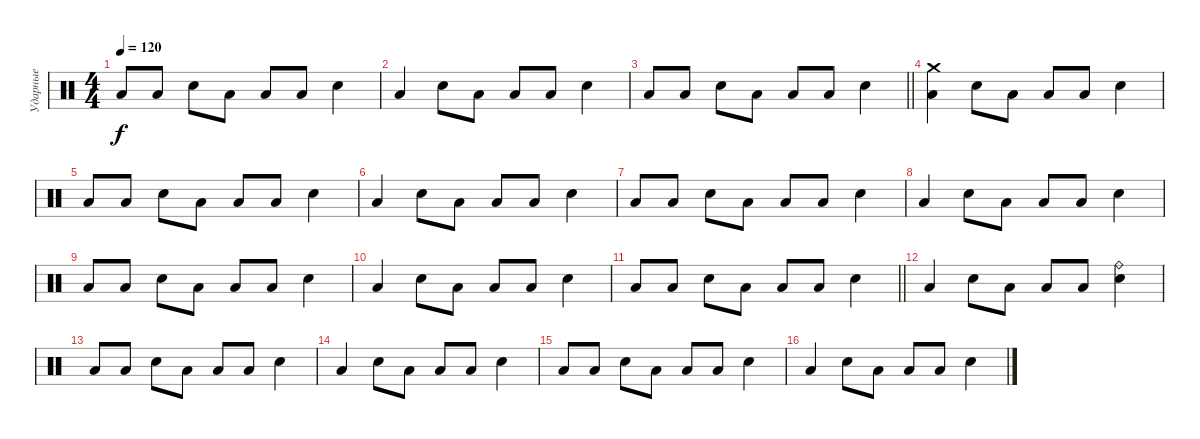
\track ("Ударные" "Ударные") {instrument percussion}
\staff {score}
\articulation defaults
\ts (4 4)
\tempo 120
\clef neutral
\ks c "Low Floor Tom (hit)".8{dy f} "Low Floor Tom (hit)".8 "Hand Clap (hit)".8 "Low Floor Tom (hit)".8 "Low Floor Tom (hit)".8 "Low Floor Tom (hit)".8 "Hand Clap (hit)".4
|
"Low Floor Tom (hit)".4 "Hand Clap (hit)".8 "Low Floor Tom (hit)".8 "Low Floor Tom (hit)".8 "Low Floor Tom (hit)".8 "Hand Clap (hit)".4 |
\barLineRight lightlight "Low Floor Tom (hit)".8 "Low Floor Tom (hit)".8 "Hand Clap (hit)".8 "Low Floor Tom (hit)".8 "Low Floor Tom (hit)".8 "Low Floor Tom (hit)".8 "Hand Clap (hit)".4
|
\section ("" "")
("Low Floor Tom (hit)" "Crash medium (hit)").4 "Hand Clap (hit)".8 "Low Floor Tom (hit)".8 "Low Floor Tom (hit)".8 "Low Floor Tom (hit)".8 "Hand Clap (hit)".4 |
"Low Floor Tom (hit)".8 "Low Floor Tom (hit)".8 "Hand Clap (hit)".8 "Low Floor Tom (hit)".8 "Low Floor Tom (hit)".8 "Low Floor Tom (hit)".8 "Hand Clap (hit)".4 |
"Low Floor Tom (hit)".4 "Hand Clap (hit)".8 "Low Floor Tom (hit)".8 "Low Floor Tom (hit)".8 "Low Floor Tom (hit)".8 "Hand Clap (hit)".4 |
"Low Floor Tom (hit)".8 "Low Floor Tom (hit)".8 "Hand Clap (hit)".8 "Low Floor Tom (hit)".8 "Low Floor Tom (hit)".8 "Low Floor Tom (hit)".8 "Hand Clap (hit)".4 |
"Low Floor Tom (hit)".4 "Hand Clap (hit)".8 "Low Floor Tom (hit)".8 "Low Floor Tom (hit)".8 "Low Floor Tom (hit)".8 "Hand Clap (hit)".4 |
"Low Floor Tom (hit)".8 "Low Floor Tom (hit)".8 "Hand Clap (hit)".8 "Low Floor Tom (hit)".8 "Low Floor Tom (hit)".8 "Low Floor Tom (hit)".8 "Hand Clap (hit)".4 |
"Low Floor Tom (hit)".4 "Hand Clap (hit)".8 "Low Floor Tom (hit)".8 "Low Floor Tom (hit)".8 "Low Floor Tom (hit)".8 "Hand Clap (hit)".4 |
\barLineRight lightlight "Low Floor Tom (hit)".8 "Low Floor Tom (hit)".8 "Hand Clap (hit)".8 "Low Floor Tom (hit)".8 "Low Floor Tom (hit)".8 "Low Floor Tom (hit)".8 "Hand Clap (hit)".4
|
\section ("" "")
"Low Floor Tom (hit)".4 "Snare (hit) 2".8 "Low Floor Tom (hit)".8 "Low Floor Tom (hit)".8 "Low Floor Tom (hit)".8 ("Ride (bell)" "Snare (hit) 2").4 |
"Low Floor Tom (hit)".8 "Low Floor Tom (hit)".8 "Snare (hit) 2".8 "Low Floor Tom (hit)".8 "Low Floor Tom (hit)".8 "Low Floor Tom (hit)".8 "Snare (hit) 2".4 |
"Low Floor Tom (hit)".4 "Snare (hit) 2".8 "Low Floor Tom (hit)".8 "Low Floor Tom (hit)".8 "Low Floor Tom (hit)".8 "Snare (hit) 2".4 |
"Low Floor Tom (hit)".8 "Low Floor Tom (hit)".8 "Snare (hit) 2".8 "Low Floor Tom (hit)".8 "Low Floor Tom (hit)".8 "Low Floor Tom (hit)".8 "Snare (hit) 2".4 |
"Low Floor Tom (hit)".4 "Snare (hit) 2".8 "Low Floor Tom (hit)".8 "Low Floor Tom (hit)".8 "Low Floor Tom (hit)".8 "Snare (hit) 2".4
